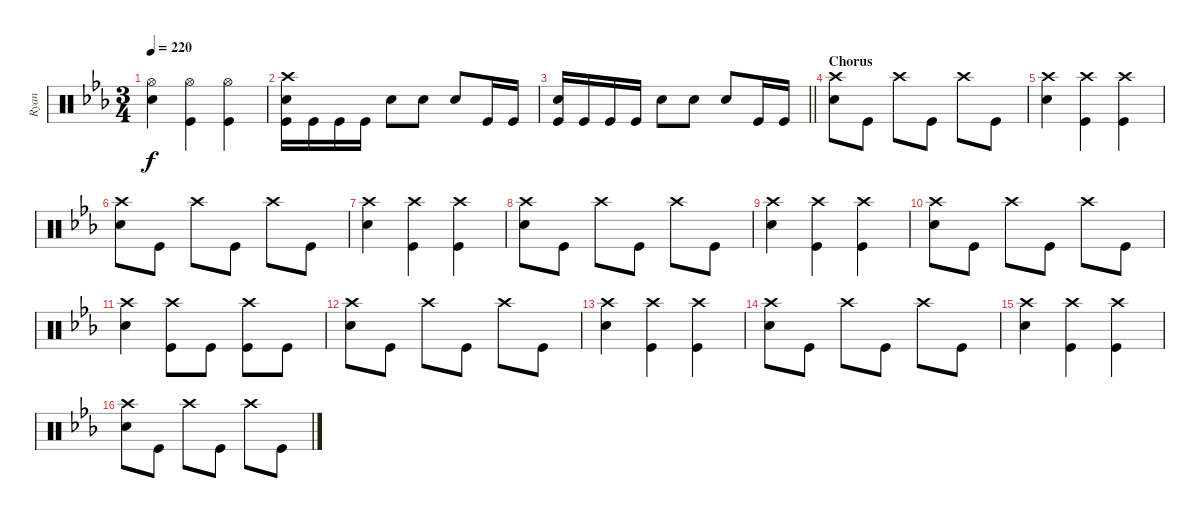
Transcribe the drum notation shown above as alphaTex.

\track ("Ryan" "Ryan") {instrument percussion}
\staff {score}
\articulation defaults
\ts (3 4)
\tempo 220
\clef neutral
\ks cminor
("Snare (hit) 2" "Hi-Hat (open)").4{dy f} ("Kick (hit)" "Hi-Hat (open)").4 ("Kick (hit)" "Hi-Hat (open)").4 |
("Kick (hit)" "Crash high (hit)" "Snare (hit) 2").16 "Kick (hit)".16 "Kick (hit)".16 "Kick (hit)".16 "Snare (hit) 2".8 "Snare (hit) 2".8 "Snare (hit) 2".8 "Kick (hit)".16 "Kick (hit)".16 |
\barLineRight lightlight
("Snare (hit) 2" "Kick (hit)").16 "Kick (hit)".16 "Kick (hit)".16 "Kick (hit)".16 "Snare (hit) 2".8 "Snare (hit) 2".8 "Snare (hit) 2".8 "Kick (hit)".16 "Kick (hit)".16 |
\section ("" "Chorus")
("Snare (hit) 2" "Crash high (hit)").8 "Kick (hit)".8 "Crash high (hit)".8 "Kick (hit)".8 "Crash high (hit)".8 "Kick (hit)".8 |
("Crash high (hit)" "Snare (hit) 2").4 ("Kick (hit)" "Crash high (hit)").4 ("Crash high (hit)" "Kick (hit)").4 |
("Snare (hit) 2" "Crash high (hit)").8 "Kick (hit)".8 "Crash high (hit)".8 "Kick (hit)".8 "Crash high (hit)".8 "Kick (hit)".8 |
("Crash high (hit)" "Snare (hit) 2").4 ("Kick (hit)" "Crash high (hit)").4 ("Crash high (hit)" "Kick (hit)").4 |
("Snare (hit) 2" "Crash high (hit)").8 "Kick (hit)".8 "Crash high (hit)".8 "Kick (hit)".8 "Crash high (hit)".8 "Kick (hit)".8 |
("Crash high (hit)" "Snare (hit) 2").4 ("Kick (hit)" "Crash high (hit)").4 ("Crash high (hit)" "Kick (hit)").4 |
("Snare (hit) 2" "Crash high (hit)").8 "Kick (hit)".8 "Crash high (hit)".8 "Kick (hit)".8 "Crash high (hit)".8 "Kick (hit)".8 |
("Crash high (hit)" "Snare (hit) 2").4 ("Kick (hit)" "Crash high (hit)").8 "Kick (hit)".8 ("Kick (hit)" "Crash high (hit)").8 "Kick (hit)".8 |
("Snare (hit) 2" "Crash high (hit)").8 "Kick (hit)".8 "Crash high (hit)".8 "Kick (hit)".8 "Crash high (hit)".8 "Kick (hit)".8 |
("Crash high (hit)" "Snare (hit) 2").4 ("Kick (hit)" "Crash high (hit)").4 ("Crash high (hit)" "Kick (hit)").4 |
("Snare (hit) 2" "Crash high (hit)").8 "Kick (hit)".8 "Crash high (hit)".8 "Kick (hit)".8 "Crash high (hit)".8 "Kick (hit)".8 |
("Crash high (hit)" "Snare (hit) 2").4 ("Kick (hit)" "Crash high (hit)").4 ("Crash high (hit)" "Kick (hit)").4 |
("Snare (hit) 2" "Crash high (hit)").8 "Kick (hit)".8 "Crash high (hit)".8 "Kick (hit)".8 "Crash high (hit)".8 "Kick (hit)".8
